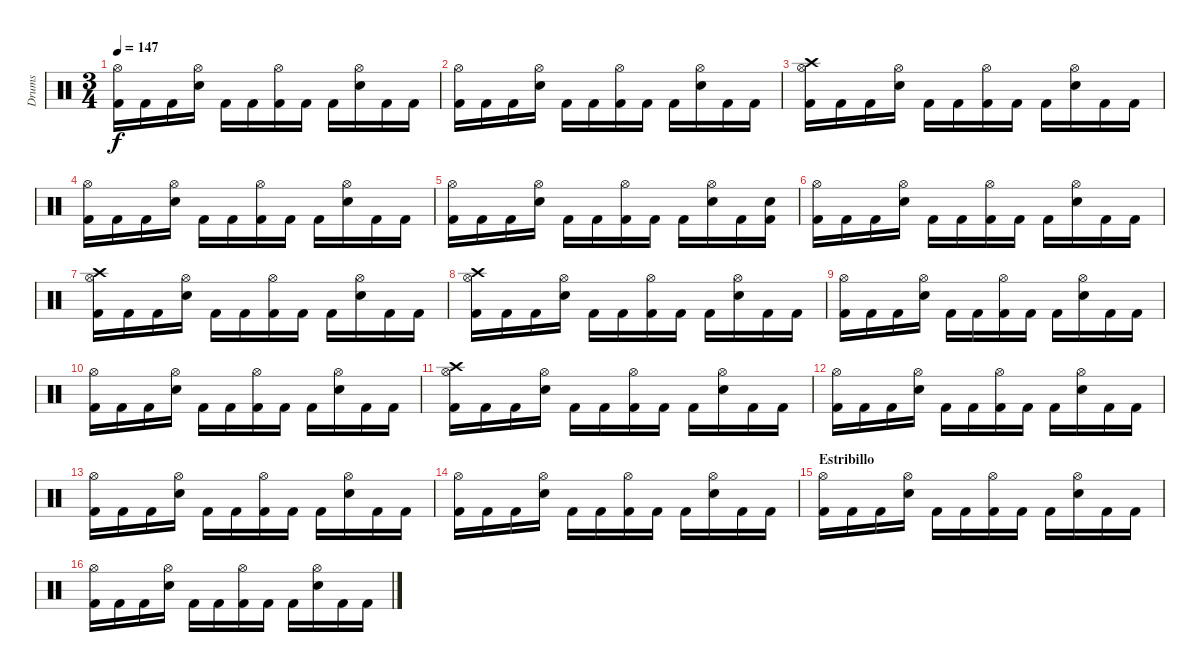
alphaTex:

\track ("Drums" "Drums") {instrument percussion}
\staff {score}
\articulation defaults
\ts (3 4)
\tempo 147
\clef neutral
\ks c
("Kick (hit) 2" "Hi-Hat (open)").16{dy f} "Kick (hit) 2".16 "Kick (hit) 2".16 ("Snare (hit) 2" "Hi-Hat (open)").16 "Kick (hit) 2".16 "Kick (hit) 2".16 ("Kick (hit) 2" "Hi-Hat (open)").16 "Kick (hit) 2".16 "Kick (hit) 2".16 ("Snare (hit) 2" "Hi-Hat (open)").16 "Kick (hit) 2".16 "Kick (hit) 2".16 |
("Kick (hit) 2" "Hi-Hat (open)").16 "Kick (hit) 2".16 "Kick (hit) 2".16 ("Snare (hit) 2" "Hi-Hat (open)").16 "Kick (hit) 2".16 "Kick (hit) 2".16 ("Kick (hit) 2" "Hi-Hat (open)").16 "Kick (hit) 2".16 "Kick (hit) 2".16 ("Snare (hit) 2" "Hi-Hat (open)").16 "Kick (hit) 2".16 "Kick (hit) 2".16 |
("Kick (hit) 2" "Crash high (hit)" "Hi-Hat (open)").16 "Kick (hit) 2".16 "Kick (hit) 2".16 ("Snare (hit) 2" "Hi-Hat (open)").16 "Kick (hit) 2".16 "Kick (hit) 2".16 ("Kick (hit) 2" "Hi-Hat (open)").16 "Kick (hit) 2".16 "Kick (hit) 2".16 ("Snare (hit) 2" "Hi-Hat (open)").16 "Kick (hit) 2".16 "Kick (hit) 2".16 |
("Kick (hit) 2" "Hi-Hat (open)").16 "Kick (hit) 2".16 "Kick (hit) 2".16 ("Snare (hit) 2" "Hi-Hat (open)").16 "Kick (hit) 2".16 "Kick (hit) 2".16 ("Kick (hit) 2" "Hi-Hat (open)").16 "Kick (hit) 2".16 "Kick (hit) 2".16 ("Snare (hit) 2" "Hi-Hat (open)").16 "Kick (hit) 2".16 "Kick (hit) 2".16 |
("Kick (hit) 2" "Hi-Hat (open)").16 "Kick (hit) 2".16 "Kick (hit) 2".16 ("Snare (hit) 2" "Hi-Hat (open)").16 "Kick (hit) 2".16 "Kick (hit) 2".16 ("Kick (hit) 2" "Hi-Hat (open)").16 "Kick (hit) 2".16 "Kick (hit) 2".16 ("Snare (hit) 2" "Hi-Hat (open)").16 "Kick (hit) 2".16 ("Kick (hit) 2" "Snare (hit) 2").16 |
("Kick (hit) 2" "Hi-Hat (open)").16 "Kick (hit) 2".16 "Kick (hit) 2".16 ("Snare (hit) 2" "Hi-Hat (open)").16 "Kick (hit) 2".16 "Kick (hit) 2".16 ("Kick (hit) 2" "Hi-Hat (open)").16 "Kick (hit) 2".16 "Kick (hit) 2".16 ("Snare (hit) 2" "Hi-Hat (open)").16 "Kick (hit) 2".16 "Kick (hit) 2".16 |
("Kick (hit) 2" "Crash high (hit)" "Hi-Hat (open)").16 "Kick (hit) 2".16 "Kick (hit) 2".16 ("Snare (hit) 2" "Hi-Hat (open)").16 "Kick (hit) 2".16 "Kick (hit) 2".16 ("Kick (hit) 2" "Hi-Hat (open)").16 "Kick (hit) 2".16 "Kick (hit) 2".16 ("Snare (hit) 2" "Hi-Hat (open)").16 "Kick (hit) 2".16 "Kick (hit) 2".16 |
("Kick (hit) 2" "Crash high (hit)" "Hi-Hat (open)").16 "Kick (hit) 2".16 "Kick (hit) 2".16 ("Snare (hit) 2" "Hi-Hat (open)").16 "Kick (hit) 2".16 "Kick (hit) 2".16 ("Kick (hit) 2" "Hi-Hat (open)").16 "Kick (hit) 2".16 "Kick (hit) 2".16 ("Snare (hit) 2" "Hi-Hat (open)").16 "Kick (hit) 2".16 "Kick (hit) 2".16 |
("Kick (hit) 2" "Hi-Hat (open)").16 "Kick (hit) 2".16 "Kick (hit) 2".16 ("Snare (hit) 2" "Hi-Hat (open)").16 "Kick (hit) 2".16 "Kick (hit) 2".16 ("Kick (hit) 2" "Hi-Hat (open)").16 "Kick (hit) 2".16 "Kick (hit) 2".16 ("Snare (hit) 2" "Hi-Hat (open)").16 "Kick (hit) 2".16 "Kick (hit) 2".16 |
("Kick (hit) 2" "Hi-Hat (open)").16 "Kick (hit) 2".16 "Kick (hit) 2".16 ("Snare (hit) 2" "Hi-Hat (open)").16 "Kick (hit) 2".16 "Kick (hit) 2".16 ("Kick (hit) 2" "Hi-Hat (open)").16 "Kick (hit) 2".16 "Kick (hit) 2".16 ("Snare (hit) 2" "Hi-Hat (open)").16 "Kick (hit) 2".16 "Kick (hit) 2".16 |
("Kick (hit) 2" "Crash high (hit)" "Hi-Hat (open)").16 "Kick (hit) 2".16 "Kick (hit) 2".16 ("Snare (hit) 2" "Hi-Hat (open)").16 "Kick (hit) 2".16 "Kick (hit) 2".16 ("Kick (hit) 2" "Hi-Hat (open)").16 "Kick (hit) 2".16 "Kick (hit) 2".16 ("Snare (hit) 2" "Hi-Hat (open)").16 "Kick (hit) 2".16 "Kick (hit) 2".16 |
("Kick (hit) 2" "Hi-Hat (open)").16 "Kick (hit) 2".16 "Kick (hit) 2".16 ("Snare (hit) 2" "Hi-Hat (open)").16 "Kick (hit) 2".16 "Kick (hit) 2".16 ("Kick (hit) 2" "Hi-Hat (open)").16 "Kick (hit) 2".16 "Kick (hit) 2".16 ("Snare (hit) 2" "Hi-Hat (open)").16 "Kick (hit) 2".16 "Kick (hit) 2".16 |
("Kick (hit) 2" "Hi-Hat (open)").16 "Kick (hit) 2".16 "Kick (hit) 2".16 ("Snare (hit) 2" "Hi-Hat (open)").16 "Kick (hit) 2".16 "Kick (hit) 2".16 ("Kick (hit) 2" "Hi-Hat (open)").16 "Kick (hit) 2".16 "Kick (hit) 2".16 ("Snare (hit) 2" "Hi-Hat (open)").16 "Kick (hit) 2".16 "Kick (hit) 2".16 |
("Kick (hit) 2" "Hi-Hat (open)").16 "Kick (hit) 2".16 "Kick (hit) 2".16 ("Snare (hit) 2" "Hi-Hat (open)").16 "Kick (hit) 2".16 "Kick (hit) 2".16 ("Kick (hit) 2" "Hi-Hat (open)").16 "Kick (hit) 2".16 "Kick (hit) 2".16 ("Snare (hit) 2" "Hi-Hat (open)").16 "Kick (hit) 2".16 "Kick (hit) 2".16 |
\section ("" "Estribillo")
("Kick (hit) 2" "Hi-Hat (open)").16 "Kick (hit) 2".16 "Kick (hit) 2".16 ("Snare (hit) 2" "Hi-Hat (open)").16 "Kick (hit) 2".16 "Kick (hit) 2".16 ("Kick (hit) 2" "Hi-Hat (open)").16 "Kick (hit) 2".16 "Kick (hit) 2".16 ("Snare (hit) 2" "Hi-Hat (open)").16 "Kick (hit) 2".16 "Kick (hit) 2".16 |
("Kick (hit) 2" "Hi-Hat (open)").16 "Kick (hit) 2".16 "Kick (hit) 2".16 ("Snare (hit) 2" "Hi-Hat (open)").16 "Kick (hit) 2".16 "Kick (hit) 2".16 ("Kick (hit) 2" "Hi-Hat (open)").16 "Kick (hit) 2".16 "Kick (hit) 2".16 ("Snare (hit) 2" "Hi-Hat (open)").16 "Kick (hit) 2".16 "Kick (hit) 2".16
